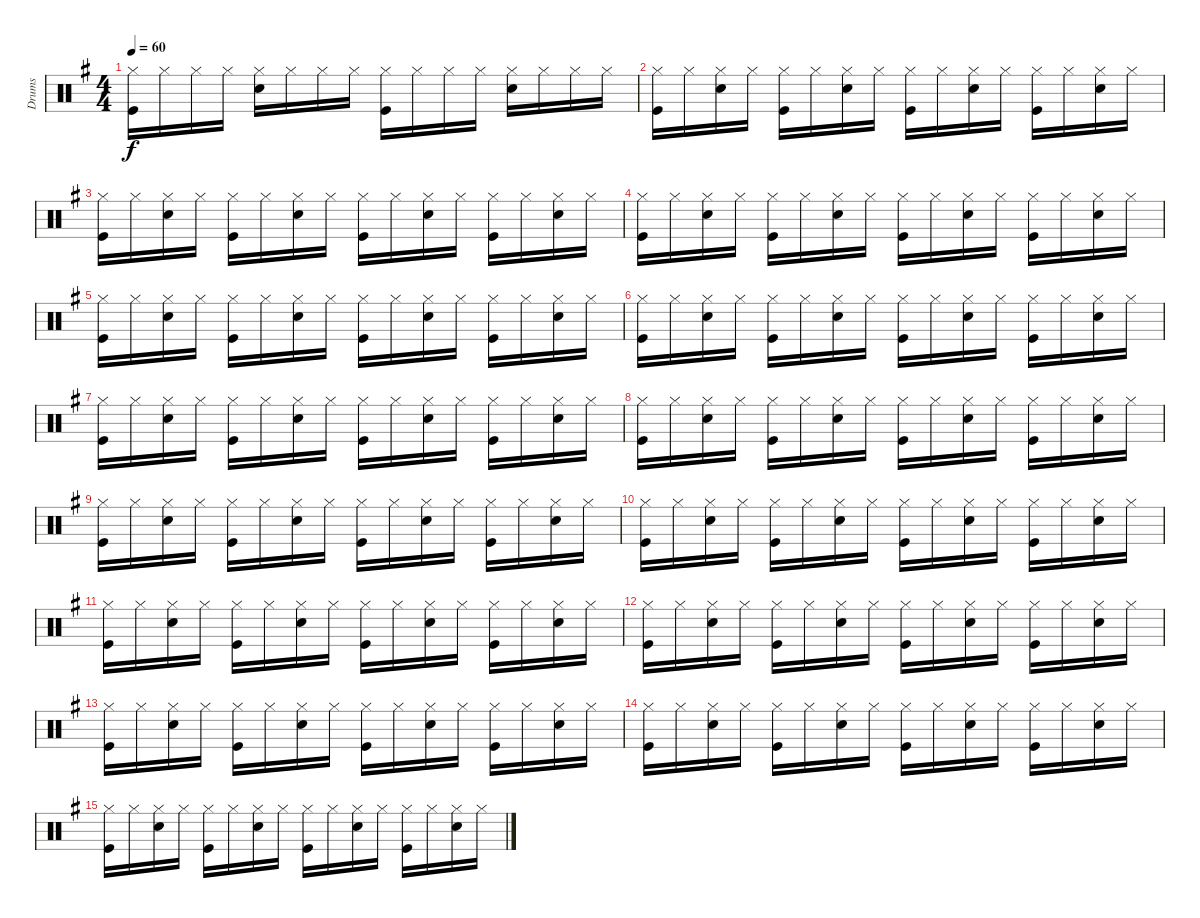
\track ("Drums" "Drums") {instrument percussion}
\staff {score}
\articulation defaults
\ts (4 4)
\tempo 60
\clef neutral
\ks g
("Kick (hit)" "Hi-Hat (closed)").16{dy f} "Hi-Hat (closed)".16 "Hi-Hat (closed)".16 "Hi-Hat (closed)".16 ("Electric Snare (hit)" "Hi-Hat (closed)").16 "Hi-Hat (closed)".16 "Hi-Hat (closed)".16 "Hi-Hat (closed)".16 ("Kick (hit)" "Hi-Hat (closed)").16 "Hi-Hat (closed)".16 "Hi-Hat (closed)".16 "Hi-Hat (closed)".16 ("Electric Snare (hit)" "Hi-Hat (closed)").16 "Hi-Hat (closed)".16 "Hi-Hat (closed)".16 "Hi-Hat (closed)".16 |
("Kick (hit)" "Hi-Hat (closed)").16 "Hi-Hat (closed)".16 ("Electric Snare (hit)" "Hi-Hat (closed)").16 "Hi-Hat (closed)".16 ("Kick (hit)" "Hi-Hat (closed)").16 "Hi-Hat (closed)".16 ("Electric Snare (hit)" "Hi-Hat (closed)").16 "Hi-Hat (closed)".16 ("Kick (hit)" "Hi-Hat (closed)").16 "Hi-Hat (closed)".16 ("Electric Snare (hit)" "Hi-Hat (closed)").16 "Hi-Hat (closed)".16 ("Kick (hit)" "Hi-Hat (closed)").16 "Hi-Hat (closed)".16 ("Electric Snare (hit)" "Hi-Hat (closed)").16 "Hi-Hat (closed)".16 |
("Kick (hit)" "Hi-Hat (closed)").16 "Hi-Hat (closed)".16 ("Electric Snare (hit)" "Hi-Hat (closed)").16 "Hi-Hat (closed)".16 ("Kick (hit)" "Hi-Hat (closed)").16 "Hi-Hat (closed)".16 ("Electric Snare (hit)" "Hi-Hat (closed)").16 "Hi-Hat (closed)".16 ("Kick (hit)" "Hi-Hat (closed)").16 "Hi-Hat (closed)".16 ("Electric Snare (hit)" "Hi-Hat (closed)").16 "Hi-Hat (closed)".16 ("Kick (hit)" "Hi-Hat (closed)").16 "Hi-Hat (closed)".16 ("Electric Snare (hit)" "Hi-Hat (closed)").16 "Hi-Hat (closed)".16 |
("Kick (hit)" "Hi-Hat (closed)").16 "Hi-Hat (closed)".16 ("Electric Snare (hit)" "Hi-Hat (closed)").16 "Hi-Hat (closed)".16 ("Kick (hit)" "Hi-Hat (closed)").16 "Hi-Hat (closed)".16 ("Electric Snare (hit)" "Hi-Hat (closed)").16 "Hi-Hat (closed)".16 ("Kick (hit)" "Hi-Hat (closed)").16 "Hi-Hat (closed)".16 ("Electric Snare (hit)" "Hi-Hat (closed)").16 "Hi-Hat (closed)".16 ("Kick (hit)" "Hi-Hat (closed)").16 "Hi-Hat (closed)".16 ("Electric Snare (hit)" "Hi-Hat (closed)").16 "Hi-Hat (closed)".16 |
("Kick (hit)" "Hi-Hat (closed)").16 "Hi-Hat (closed)".16 ("Electric Snare (hit)" "Hi-Hat (closed)").16 "Hi-Hat (closed)".16 ("Kick (hit)" "Hi-Hat (closed)").16 "Hi-Hat (closed)".16 ("Electric Snare (hit)" "Hi-Hat (closed)").16 "Hi-Hat (closed)".16 ("Kick (hit)" "Hi-Hat (closed)").16 "Hi-Hat (closed)".16 ("Electric Snare (hit)" "Hi-Hat (closed)").16 "Hi-Hat (closed)".16 ("Kick (hit)" "Hi-Hat (closed)").16 "Hi-Hat (closed)".16 ("Electric Snare (hit)" "Hi-Hat (closed)").16 "Hi-Hat (closed)".16 |
("Kick (hit)" "Hi-Hat (closed)").16 "Hi-Hat (closed)".16 ("Electric Snare (hit)" "Hi-Hat (closed)").16 "Hi-Hat (closed)".16 ("Kick (hit)" "Hi-Hat (closed)").16 "Hi-Hat (closed)".16 ("Electric Snare (hit)" "Hi-Hat (closed)").16 "Hi-Hat (closed)".16 ("Kick (hit)" "Hi-Hat (closed)").16 "Hi-Hat (closed)".16 ("Electric Snare (hit)" "Hi-Hat (closed)").16 "Hi-Hat (closed)".16 ("Kick (hit)" "Hi-Hat (closed)").16 "Hi-Hat (closed)".16 ("Electric Snare (hit)" "Hi-Hat (closed)").16 "Hi-Hat (closed)".16 |
("Kick (hit)" "Hi-Hat (closed)").16 "Hi-Hat (closed)".16 ("Electric Snare (hit)" "Hi-Hat (closed)").16 "Hi-Hat (closed)".16 ("Kick (hit)" "Hi-Hat (closed)").16 "Hi-Hat (closed)".16 ("Electric Snare (hit)" "Hi-Hat (closed)").16 "Hi-Hat (closed)".16 ("Kick (hit)" "Hi-Hat (closed)").16 "Hi-Hat (closed)".16 ("Electric Snare (hit)" "Hi-Hat (closed)").16 "Hi-Hat (closed)".16 ("Kick (hit)" "Hi-Hat (closed)").16 "Hi-Hat (closed)".16 ("Electric Snare (hit)" "Hi-Hat (closed)").16 "Hi-Hat (closed)".16 |
("Kick (hit)" "Hi-Hat (closed)").16 "Hi-Hat (closed)".16 ("Electric Snare (hit)" "Hi-Hat (closed)").16 "Hi-Hat (closed)".16 ("Kick (hit)" "Hi-Hat (closed)").16 "Hi-Hat (closed)".16 ("Electric Snare (hit)" "Hi-Hat (closed)").16 "Hi-Hat (closed)".16 ("Kick (hit)" "Hi-Hat (closed)").16 "Hi-Hat (closed)".16 ("Electric Snare (hit)" "Hi-Hat (closed)").16 "Hi-Hat (closed)".16 ("Kick (hit)" "Hi-Hat (closed)").16 "Hi-Hat (closed)".16 ("Electric Snare (hit)" "Hi-Hat (closed)").16 "Hi-Hat (closed)".16 |
("Kick (hit)" "Hi-Hat (closed)").16 "Hi-Hat (closed)".16 ("Electric Snare (hit)" "Hi-Hat (closed)").16 "Hi-Hat (closed)".16 ("Kick (hit)" "Hi-Hat (closed)").16 "Hi-Hat (closed)".16 ("Electric Snare (hit)" "Hi-Hat (closed)").16 "Hi-Hat (closed)".16 ("Kick (hit)" "Hi-Hat (closed)").16 "Hi-Hat (closed)".16 ("Electric Snare (hit)" "Hi-Hat (closed)").16 "Hi-Hat (closed)".16 ("Kick (hit)" "Hi-Hat (closed)").16 "Hi-Hat (closed)".16 ("Electric Snare (hit)" "Hi-Hat (closed)").16 "Hi-Hat (closed)".16 |
("Kick (hit)" "Hi-Hat (closed)").16 "Hi-Hat (closed)".16 ("Electric Snare (hit)" "Hi-Hat (closed)").16 "Hi-Hat (closed)".16 ("Kick (hit)" "Hi-Hat (closed)").16 "Hi-Hat (closed)".16 ("Electric Snare (hit)" "Hi-Hat (closed)").16 "Hi-Hat (closed)".16 ("Kick (hit)" "Hi-Hat (closed)").16 "Hi-Hat (closed)".16 ("Electric Snare (hit)" "Hi-Hat (closed)").16 "Hi-Hat (closed)".16 ("Kick (hit)" "Hi-Hat (closed)").16 "Hi-Hat (closed)".16 ("Electric Snare (hit)" "Hi-Hat (closed)").16 "Hi-Hat (closed)".16 |
("Kick (hit)" "Hi-Hat (closed)").16 "Hi-Hat (closed)".16 ("Electric Snare (hit)" "Hi-Hat (closed)").16 "Hi-Hat (closed)".16 ("Kick (hit)" "Hi-Hat (closed)").16 "Hi-Hat (closed)".16 ("Electric Snare (hit)" "Hi-Hat (closed)").16 "Hi-Hat (closed)".16 ("Kick (hit)" "Hi-Hat (closed)").16 "Hi-Hat (closed)".16 ("Electric Snare (hit)" "Hi-Hat (closed)").16 "Hi-Hat (closed)".16 ("Kick (hit)" "Hi-Hat (closed)").16 "Hi-Hat (closed)".16 ("Electric Snare (hit)" "Hi-Hat (closed)").16 "Hi-Hat (closed)".16 |
("Kick (hit)" "Hi-Hat (closed)").16 "Hi-Hat (closed)".16 ("Electric Snare (hit)" "Hi-Hat (closed)").16 "Hi-Hat (closed)".16 ("Kick (hit)" "Hi-Hat (closed)").16 "Hi-Hat (closed)".16 ("Electric Snare (hit)" "Hi-Hat (closed)").16 "Hi-Hat (closed)".16 ("Kick (hit)" "Hi-Hat (closed)").16 "Hi-Hat (closed)".16 ("Electric Snare (hit)" "Hi-Hat (closed)").16 "Hi-Hat (closed)".16 ("Kick (hit)" "Hi-Hat (closed)").16 "Hi-Hat (closed)".16 ("Electric Snare (hit)" "Hi-Hat (closed)").16 "Hi-Hat (closed)".16 |
("Kick (hit)" "Hi-Hat (closed)").16 "Hi-Hat (closed)".16 ("Electric Snare (hit)" "Hi-Hat (closed)").16 "Hi-Hat (closed)".16 ("Kick (hit)" "Hi-Hat (closed)").16 "Hi-Hat (closed)".16 ("Electric Snare (hit)" "Hi-Hat (closed)").16 "Hi-Hat (closed)".16 ("Kick (hit)" "Hi-Hat (closed)").16 "Hi-Hat (closed)".16 ("Electric Snare (hit)" "Hi-Hat (closed)").16 "Hi-Hat (closed)".16 ("Kick (hit)" "Hi-Hat (closed)").16 "Hi-Hat (closed)".16 ("Electric Snare (hit)" "Hi-Hat (closed)").16 "Hi-Hat (closed)".16 |
("Kick (hit)" "Hi-Hat (closed)").16 "Hi-Hat (closed)".16 ("Electric Snare (hit)" "Hi-Hat (closed)").16 "Hi-Hat (closed)".16 ("Kick (hit)" "Hi-Hat (closed)").16 "Hi-Hat (closed)".16 ("Electric Snare (hit)" "Hi-Hat (closed)").16 "Hi-Hat (closed)".16 ("Kick (hit)" "Hi-Hat (closed)").16 "Hi-Hat (closed)".16 ("Electric Snare (hit)" "Hi-Hat (closed)").16 "Hi-Hat (closed)".16 ("Kick (hit)" "Hi-Hat (closed)").16 "Hi-Hat (closed)".16 ("Electric Snare (hit)" "Hi-Hat (closed)").16 "Hi-Hat (closed)".16 |
("Kick (hit)" "Hi-Hat (closed)").16 "Hi-Hat (closed)".16 ("Electric Snare (hit)" "Hi-Hat (closed)").16 "Hi-Hat (closed)".16 ("Kick (hit)" "Hi-Hat (closed)").16 "Hi-Hat (closed)".16 ("Electric Snare (hit)" "Hi-Hat (closed)").16 "Hi-Hat (closed)".16 ("Kick (hit)" "Hi-Hat (closed)").16 "Hi-Hat (closed)".16 ("Electric Snare (hit)" "Hi-Hat (closed)").16 "Hi-Hat (closed)".16 ("Kick (hit)" "Hi-Hat (closed)").16 "Hi-Hat (closed)".16 ("Electric Snare (hit)" "Hi-Hat (closed)").16 "Hi-Hat (closed)".16
